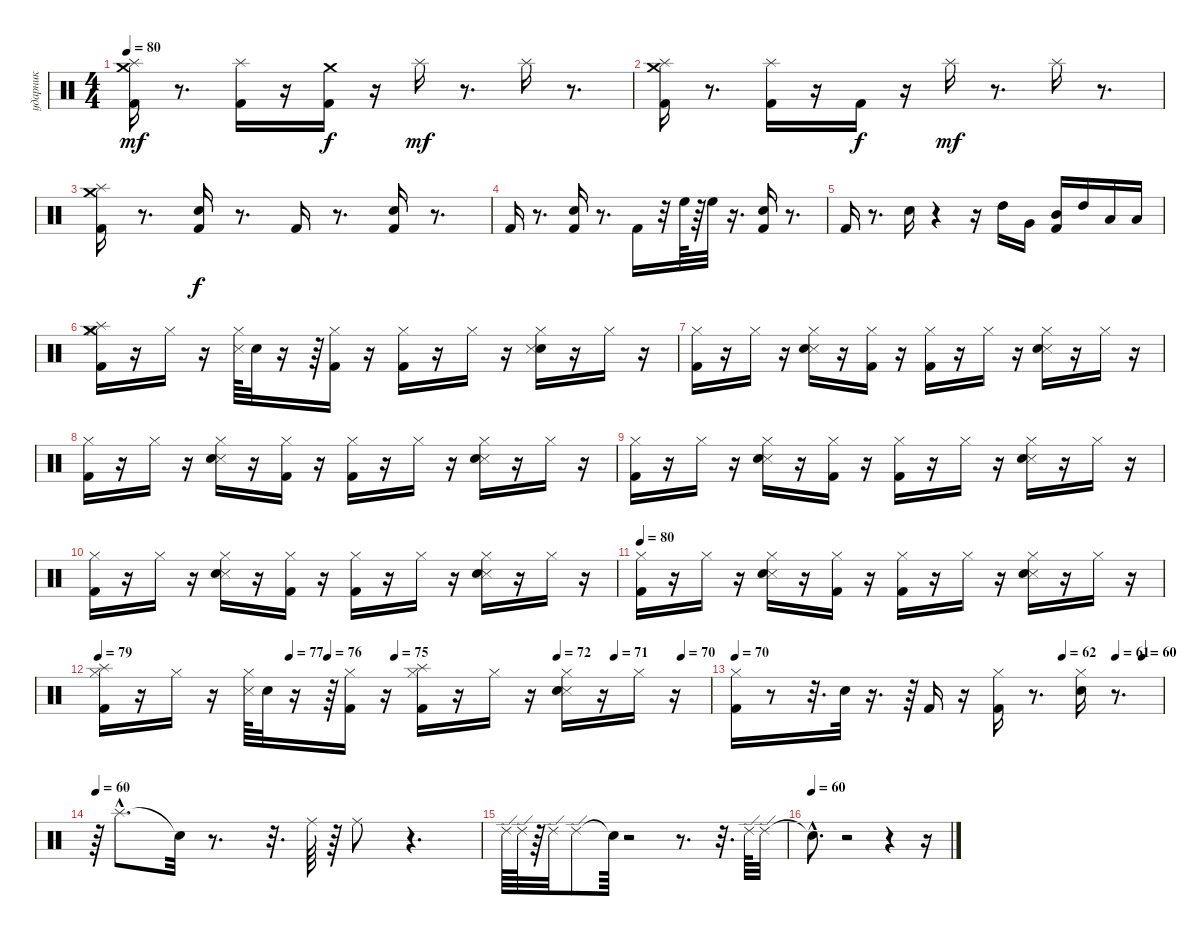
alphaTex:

\track ("ударник" "ударник") {instrument percussion}
\staff {score}
\articulation defaults
\ts (4 4)
\tempo 80
\clef neutral
\ks c
("Splash (hit)" "Crash medium (hit)" "Kick (hit) 2").16{dy mf} r.8{d} ("Splash (hit)" "Kick (hit) 2").16 r.16 ("Crash medium (hit)" "Kick (hit) 2").16{dy f} r.16 "Splash (hit)".16{dy mf} r.8{d} "Splash (hit)".16 r.8{d} |
("Splash (hit)" "Crash medium (hit)" "Kick (hit) 2").16 r.8{d} ("Splash (hit)" "Kick (hit) 2").16 r.16 "Kick (hit) 2".16{dy f} r.16 "Splash (hit)".16{dy mf} r.8{d} "Splash (hit)".16 r.8{d} |
("Splash (hit)" "Crash medium (hit)" "Kick (hit) 2").16 r.8{d} ("Kick (hit) 2" "Snare (hit) 2").16{dy f} r.8{d} "Kick (hit) 2".16 r.8{d} ("Snare (hit) 2" "Kick (hit) 2").16 r.8{d} |
"Kick (hit) 2".16 r.8{d} ("Snare (hit) 2" "Kick (hit) 2").16 r.8{d} "Kick (hit) 2".16 r.32 "High Floor Tom (hit)".64 r.64 "High Floor Tom (hit)".32 r.16{d} ("Snare (hit) 2" "Kick (hit) 2").16 r.8{d} |
"Kick (hit) 2".16 r.8{d} "Snare (hit) 2".16 r.4 r.16 "High Tom (hit)".16 "Very Low Tom (hit)".16 ("Kick (hit) 2" "Mid Tom (hit)").16 "High Tom (hit)".16 "Low Tom (hit)".16 "Low Tom (hit)".16 |
("Crash medium (hit)" "Splash (hit)" "Kick (hit) 2" "Hi-Hat (closed)").16 r.16 "Hi-Hat (closed)".16 r.16 ("Snare (side stick) 3" "Hi-Hat (closed)").64 "Hand Clap (hit)".32 r.16 r.64 ("Kick (hit) 2" "Hi-Hat (closed)").16 r.16 ("Hi-Hat (closed)" "Kick (hit) 2").16 r.16 "Hi-Hat (closed)".16 r.16 ("Hand Clap (hit)" "Snare (side stick) 3" "Hi-Hat (closed)").16 r.16 "Hi-Hat (closed)".16 r.16 |
("Hi-Hat (closed)" "Kick (hit) 2").16 r.16 "Hi-Hat (closed)".16 r.16 ("Hi-Hat (closed)" "Snare (side stick) 3" "Hand Clap (hit)").16 r.16 ("Kick (hit) 2" "Hi-Hat (closed)").16 r.16 ("Hi-Hat (closed)" "Kick (hit) 2").16 r.16 "Hi-Hat (closed)".16 r.16 ("Snare (side stick) 3" "Hi-Hat (closed)" "Hand Clap (hit)").16 r.16 "Hi-Hat (closed)".16 r.16 |
("Kick (hit) 2" "Hi-Hat (closed)").16 r.16 "Hi-Hat (closed)".16 r.16 ("Hi-Hat (closed)" "Snare (side stick) 3" "Hand Clap (hit)").16 r.16 ("Hi-Hat (closed)" "Kick (hit) 2").16 r.16 ("Kick (hit) 2" "Hi-Hat (closed)").16 r.16 "Hi-Hat (closed)".16 r.16 ("Snare (side stick) 3" "Hi-Hat (closed)" "Hand Clap (hit)").16 r.16 "Hi-Hat (closed)".16 r.16 |
("Hi-Hat (closed)" "Kick (hit) 2").16 r.16 "Hi-Hat (closed)".16 r.16 ("Snare (side stick) 3" "Hi-Hat (closed)" "Hand Clap (hit)").16 r.16 ("Kick (hit) 2" "Hi-Hat (closed)").16 r.16 ("Hi-Hat (closed)" "Kick (hit) 2").16 r.16 "Hi-Hat (closed)".16 r.16 ("Snare (side stick) 3" "Hand Clap (hit)" "Hi-Hat (closed)").16 r.16 "Hi-Hat (closed)".16 r.16 |
("Kick (hit) 2" "Hi-Hat (closed)").16 r.16 "Hi-Hat (closed)".16 r.16 ("Hi-Hat (closed)" "Snare (side stick) 3" "Hand Clap (hit)").16 r.16 ("Hi-Hat (closed)" "Kick (hit) 2").16 r.16 ("Kick (hit) 2" "Hi-Hat (closed)").16 r.16 "Hi-Hat (closed)".16 r.16 ("Snare (side stick) 3" "Hi-Hat (closed)" "Hand Clap (hit)").16 r.16 "Hi-Hat (closed)".16 r.16 |
\tempo 80
("Kick (hit) 2" "Hi-Hat (closed)").16 r.16 "Hi-Hat (closed)".16 r.16 ("Snare (side stick) 3" "Hi-Hat (closed)" "Hand Clap (hit)").16 r.16 ("Kick (hit) 2" "Hi-Hat (closed)").16 r.16 ("Hi-Hat (closed)" "Kick (hit) 2").16 r.16 "Hi-Hat (closed)".16 r.16 ("Hi-Hat (closed)" "Snare (side stick) 3" "Hand Clap (hit)").16 r.16 "Hi-Hat (closed)".16 r.16 |
\tempo 79
\tempo (77 0.3125)
\tempo (76 0.375)
\tempo (75 0.484375)
\tempo (72 0.75)
\tempo (71 0.84375)
\tempo (70 0.953125)
("Splash (hit)" "Hi-Hat (closed)" "Kick (hit) 2").16 r.16 "Hi-Hat (closed)".16 r.16 ("Snare (side stick) 3" "Hi-Hat (closed)").64 "Hand Clap (hit)".32 r.16 r.64 ("Kick (hit) 2" "Hi-Hat (closed)").16 r.16 ("Splash (hit)" "Hi-Hat (closed)" "Kick (hit) 2").16 r.16 "Hi-Hat (closed)".16 r.16 ("Snare (side stick) 3" "Hand Clap (hit)" "Hi-Hat (closed)").16 r.16 "Hi-Hat (closed)".16 r.16 |
\tempo 70
\tempo (62 0.765625)
\tempo (61 0.890625)
\tempo (60 0.953125)
("Hi-Hat (closed)" "Kick (hit) 2").16 r.8 r.32{d} "Hand Clap (hit)".32 r.16{d} r.64 "Kick (hit) 2".16 r.16 ("Kick (hit) 2" "Hi-Hat (closed)").16 r.8{d} ("Hand Clap (hit)" "Hi-Hat (closed)").16 r.8{d} |
\tempo 60
r.64 "Splash (hit)"{hac}.8{d} "Snare (hit)"{t}.32 r.8{d} r.32{d} "Ride (middle)".64 r.64 "Ride (middle)".8 r.4{d} |
"Ride (edge) 2".64 "Ride (edge) 2".64 r.64 "Ride (edge) 2".32 "Ride (edge) 2".8 "Snare (hit)"{t}.64 r.2 r.8{d} r.32{d} "Ride (edge) 2".64 "Ride (edge) 2".32 |
\tempo (60)
"Snare (hit)"{hac t}.8{d} r.2 r.4 r.16
